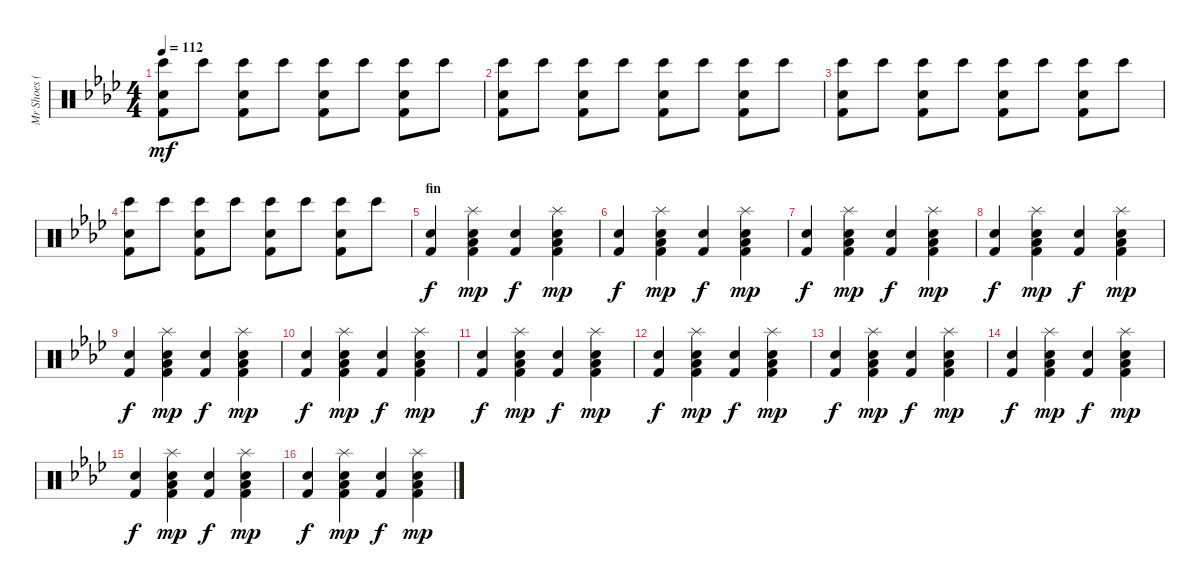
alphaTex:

\track ("Mr Shoes (batterie)" "Mr Shoes (") {instrument percussion}
\staff {score}
\articulation defaults
\ts (4 4)
\tempo 112
\clef neutral
\ks ab
("Snare (hit) 2" "Kick (hit) 2" "Bongo High (hit)").8{dy mf} "Bongo High (hit)".8 ("Snare (hit) 2" "Kick (hit) 2" "Bongo High (hit)").8 "Bongo High (hit)".8 ("Snare (hit) 2" "Kick (hit) 2" "Bongo High (hit)").8 "Bongo High (hit)".8 ("Snare (hit) 2" "Kick (hit) 2" "Bongo High (hit)").8 "Bongo High (hit)".8 |
("Snare (hit) 2" "Kick (hit) 2" "Bongo High (hit)").8 "Bongo High (hit)".8 ("Snare (hit) 2" "Kick (hit) 2" "Bongo High (hit)").8 "Bongo High (hit)".8 ("Snare (hit) 2" "Kick (hit) 2" "Bongo High (hit)").8 "Bongo High (hit)".8 ("Snare (hit) 2" "Kick (hit) 2" "Bongo High (hit)").8 "Bongo High (hit)".8 |
("Snare (hit) 2" "Kick (hit) 2" "Bongo High (hit)").8 "Bongo High (hit)".8 ("Snare (hit) 2" "Kick (hit) 2" "Bongo High (hit)").8 "Bongo High (hit)".8 ("Snare (hit) 2" "Kick (hit) 2" "Bongo High (hit)").8 "Bongo High (hit)".8 ("Snare (hit) 2" "Kick (hit) 2" "Bongo High (hit)").8 "Bongo High (hit)".8 |
("Snare (hit) 2" "Kick (hit) 2" "Bongo High (hit)").8 "Bongo High (hit)".8 ("Snare (hit) 2" "Kick (hit) 2" "Bongo High (hit)").8 "Bongo High (hit)".8 ("Snare (hit) 2" "Kick (hit) 2" "Bongo High (hit)").8 "Bongo High (hit)".8 ("Snare (hit) 2" "Kick (hit) 2" "Bongo High (hit)").8 "Bongo High (hit)".8 |
\section ("" "fin")
("Snare (hit) 2" "Kick (hit) 2").4{dy f} ("Snare (hit) 2" "Kick (hit) 2" "Splash (hit)" "Low Tom (hit)").4{dy mp} ("Snare (hit) 2" "Kick (hit) 2").4{dy f} ("Snare (hit) 2" "Kick (hit) 2" "Splash (hit)" "Low Tom (hit)").4{dy mp} |
("Snare (hit) 2" "Kick (hit) 2").4{dy f} ("Snare (hit) 2" "Kick (hit) 2" "Splash (hit)" "Low Tom (hit)").4{dy mp} ("Snare (hit) 2" "Kick (hit) 2").4{dy f} ("Snare (hit) 2" "Kick (hit) 2" "Splash (hit)" "Low Tom (hit)").4{dy mp} |
("Snare (hit) 2" "Kick (hit) 2").4{dy f} ("Snare (hit) 2" "Kick (hit) 2" "Splash (hit)" "Low Tom (hit)").4{dy mp} ("Snare (hit) 2" "Kick (hit) 2").4{dy f} ("Snare (hit) 2" "Kick (hit) 2" "Splash (hit)" "Low Tom (hit)").4{dy mp} |
("Snare (hit) 2" "Kick (hit) 2").4{dy f} ("Snare (hit) 2" "Kick (hit) 2" "Splash (hit)" "Low Tom (hit)").4{dy mp} ("Snare (hit) 2" "Kick (hit) 2").4{dy f} ("Snare (hit) 2" "Kick (hit) 2" "Splash (hit)" "Low Tom (hit)").4{dy mp} |
("Snare (hit) 2" "Kick (hit) 2").4{dy f} ("Snare (hit) 2" "Kick (hit) 2" "Splash (hit)" "Low Tom (hit)").4{dy mp} ("Snare (hit) 2" "Kick (hit) 2").4{dy f} ("Snare (hit) 2" "Kick (hit) 2" "Splash (hit)" "Low Tom (hit)").4{dy mp} |
("Snare (hit) 2" "Kick (hit) 2").4{dy f} ("Snare (hit) 2" "Kick (hit) 2" "Splash (hit)" "Low Tom (hit)").4{dy mp} ("Snare (hit) 2" "Kick (hit) 2").4{dy f} ("Snare (hit) 2" "Kick (hit) 2" "Splash (hit)" "Low Tom (hit)").4{dy mp} |
("Snare (hit) 2" "Kick (hit) 2").4{dy f} ("Snare (hit) 2" "Kick (hit) 2" "Splash (hit)" "Low Tom (hit)").4{dy mp} ("Snare (hit) 2" "Kick (hit) 2").4{dy f} ("Snare (hit) 2" "Kick (hit) 2" "Splash (hit)" "Low Tom (hit)").4{dy mp} |
("Snare (hit) 2" "Kick (hit) 2").4{dy f} ("Snare (hit) 2" "Kick (hit) 2" "Splash (hit)" "Low Tom (hit)").4{dy mp} ("Snare (hit) 2" "Kick (hit) 2").4{dy f} ("Snare (hit) 2" "Kick (hit) 2" "Splash (hit)" "Low Tom (hit)").4{dy mp} |
("Snare (hit) 2" "Kick (hit) 2").4{dy f volume 10} ("Snare (hit) 2" "Kick (hit) 2" "Splash (hit)" "Low Tom (hit)").4{dy mp} ("Snare (hit) 2" "Kick (hit) 2").4{dy f} ("Snare (hit) 2" "Kick (hit) 2" "Splash (hit)" "Low Tom (hit)").4{dy mp} |
("Snare (hit) 2" "Kick (hit) 2").4{dy f} ("Snare (hit) 2" "Kick (hit) 2" "Splash (hit)" "Low Tom (hit)").4{dy mp} ("Snare (hit) 2" "Kick (hit) 2").4{dy f} ("Snare (hit) 2" "Kick (hit) 2" "Splash (hit)" "Low Tom (hit)").4{dy mp} |
("Snare (hit) 2" "Kick (hit) 2").4{dy f volume 9} ("Snare (hit) 2" "Kick (hit) 2" "Splash (hit)" "Low Tom (hit)").4{dy mp} ("Snare (hit) 2" "Kick (hit) 2").4{dy f} ("Snare (hit) 2" "Kick (hit) 2" "Splash (hit)" "Low Tom (hit)").4{dy mp} |
("Snare (hit) 2" "Kick (hit) 2").4{dy f} ("Snare (hit) 2" "Kick (hit) 2" "Splash (hit)" "Low Tom (hit)").4{dy mp} ("Snare (hit) 2" "Kick (hit) 2").4{dy f} ("Snare (hit) 2" "Kick (hit) 2" "Splash (hit)" "Low Tom (hit)").4{dy mp}
